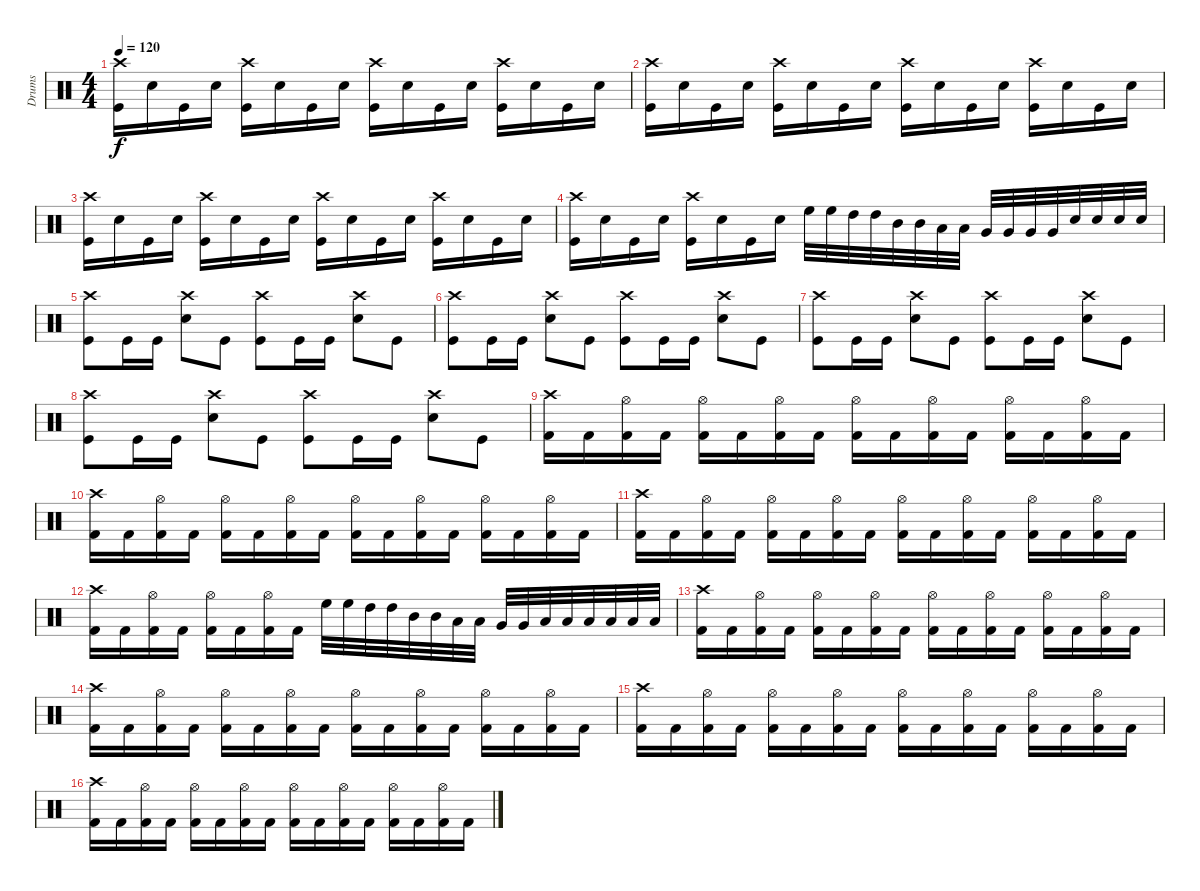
\track ("Drums" "Drums") {instrument percussion}
\staff {score}
\articulation defaults
\ts (4 4)
\tempo 120
\clef neutral
\ks c
("Crash high (hit)" "Kick (hit)").16{dy f} "Snare (hit) 2".16 "Kick (hit)".16 "Snare (hit) 2".16 ("Crash high (hit)" "Kick (hit)").16 "Snare (hit) 2".16 "Kick (hit)".16 "Snare (hit) 2".16 ("Crash high (hit)" "Kick (hit)").16 "Snare (hit) 2".16 "Kick (hit)".16 "Snare (hit) 2".16 ("Crash high (hit)" "Kick (hit)").16 "Snare (hit) 2".16 "Kick (hit)".16 "Snare (hit) 2".16 |
("Crash high (hit)" "Kick (hit)").16 "Snare (hit) 2".16 "Kick (hit)".16 "Snare (hit) 2".16 ("Crash high (hit)" "Kick (hit)").16 "Snare (hit) 2".16 "Kick (hit)".16 "Snare (hit) 2".16 ("Crash high (hit)" "Kick (hit)").16 "Snare (hit) 2".16 "Kick (hit)".16 "Snare (hit) 2".16 ("Crash high (hit)" "Kick (hit)").16 "Snare (hit) 2".16 "Kick (hit)".16 "Snare (hit) 2".16 |
("Crash high (hit)" "Kick (hit)").16 "Snare (hit) 2".16 "Kick (hit)".16 "Snare (hit) 2".16 ("Crash high (hit)" "Kick (hit)").16 "Snare (hit) 2".16 "Kick (hit)".16 "Snare (hit) 2".16 ("Crash high (hit)" "Kick (hit)").16 "Snare (hit) 2".16 "Kick (hit)".16 "Snare (hit) 2".16 ("Crash high (hit)" "Kick (hit)").16 "Snare (hit) 2".16 "Kick (hit)".16 "Snare (hit) 2".16 |
("Crash high (hit)" "Kick (hit)").16 "Snare (hit) 2".16 "Kick (hit)".16 "Snare (hit) 2".16 ("Crash high (hit)" "Kick (hit)").16 "Snare (hit) 2".16 "Kick (hit)".16 "Snare (hit) 2".16 "High Floor Tom (hit)".32 "High Floor Tom (hit)".32 "High Tom (hit)".32 "High Tom (hit)".32 "Mid Tom (hit)".32 "Mid Tom (hit)".32 "Low Tom (hit)".32 "Low Tom (hit)".32 "Very Low Tom (hit)".32 "Very Low Tom (hit)".32 "Very Low Tom (hit)".32 "Very Low Tom (hit)".32 "Snare (hit) 2".32 "Snare (hit) 2".32 "Snare (hit) 2".32 "Snare (hit) 2".32 |
("Crash high (hit)" "Kick (hit)").8 "Kick (hit)".16 "Kick (hit)".16 ("Crash high (hit)" "Snare (hit) 2").8 "Kick (hit)".8 ("Crash high (hit)" "Kick (hit)").8 "Kick (hit)".16 "Kick (hit)".16 ("Crash high (hit)" "Snare (hit) 2").8 "Kick (hit)".8 |
("Crash high (hit)" "Kick (hit)").8 "Kick (hit)".16 "Kick (hit)".16 ("Crash high (hit)" "Snare (hit) 2").8 "Kick (hit)".8 ("Crash high (hit)" "Kick (hit)").8 "Kick (hit)".16 "Kick (hit)".16 ("Crash high (hit)" "Snare (hit) 2").8 "Kick (hit)".8 |
("Crash high (hit)" "Kick (hit)").8 "Kick (hit)".16 "Kick (hit)".16 ("Crash high (hit)" "Snare (hit) 2").8 "Kick (hit)".8 ("Crash high (hit)" "Kick (hit)").8 "Kick (hit)".16 "Kick (hit)".16 ("Crash high (hit)" "Snare (hit) 2").8 "Kick (hit)".8 |
("Crash high (hit)" "Kick (hit)").8 "Kick (hit)".16 "Kick (hit)".16 ("Crash high (hit)" "Snare (hit) 2").8 "Kick (hit)".8 ("Crash high (hit)" "Kick (hit)").8 "Kick (hit)".16 "Kick (hit)".16 ("Crash high (hit)" "Snare (hit) 2").8 "Kick (hit)".8 |
("Crash high (hit)" "Kick (hit) 2").16 "Kick (hit) 2".16 ("Hi-Hat (open)" "Kick (hit) 2").16 "Kick (hit) 2".16 ("Hi-Hat (open)" "Kick (hit) 2").16 "Kick (hit) 2".16 ("Hi-Hat (open)" "Kick (hit) 2").16 "Kick (hit) 2".16 ("Hi-Hat (open)" "Kick (hit) 2").16 "Kick (hit) 2".16 ("Hi-Hat (open)" "Kick (hit) 2").16 "Kick (hit) 2".16 ("Hi-Hat (open)" "Kick (hit) 2").16 "Kick (hit) 2".16 ("Hi-Hat (open)" "Kick (hit) 2").16 "Kick (hit) 2".16 |
("Crash high (hit)" "Kick (hit) 2").16 "Kick (hit) 2".16 ("Hi-Hat (open)" "Kick (hit) 2").16 "Kick (hit) 2".16 ("Hi-Hat (open)" "Kick (hit) 2").16 "Kick (hit) 2".16 ("Hi-Hat (open)" "Kick (hit) 2").16 "Kick (hit) 2".16 ("Hi-Hat (open)" "Kick (hit) 2").16 "Kick (hit) 2".16 ("Hi-Hat (open)" "Kick (hit) 2").16 "Kick (hit) 2".16 ("Hi-Hat (open)" "Kick (hit) 2").16 "Kick (hit) 2".16 ("Hi-Hat (open)" "Kick (hit) 2").16 "Kick (hit) 2".16 |
("Crash high (hit)" "Kick (hit) 2").16 "Kick (hit) 2".16 ("Hi-Hat (open)" "Kick (hit) 2").16 "Kick (hit) 2".16 ("Hi-Hat (open)" "Kick (hit) 2").16 "Kick (hit) 2".16 ("Hi-Hat (open)" "Kick (hit) 2").16 "Kick (hit) 2".16 ("Hi-Hat (open)" "Kick (hit) 2").16 "Kick (hit) 2".16 ("Hi-Hat (open)" "Kick (hit) 2").16 "Kick (hit) 2".16 ("Hi-Hat (open)" "Kick (hit) 2").16 "Kick (hit) 2".16 ("Hi-Hat (open)" "Kick (hit) 2").16 "Kick (hit) 2".16 |
("Crash high (hit)" "Kick (hit) 2").16 "Kick (hit) 2".16 ("Hi-Hat (open)" "Kick (hit) 2").16 "Kick (hit) 2".16 ("Hi-Hat (open)" "Kick (hit) 2").16 "Kick (hit) 2".16 ("Hi-Hat (open)" "Kick (hit) 2").16 "Kick (hit) 2".16 "High Floor Tom (hit)".32 "High Floor Tom (hit)".32 "High Tom (hit)".32 "High Tom (hit)".32 "Mid Tom (hit)".32 "Mid Tom (hit)".32 "Low Tom (hit)".32 "Low Tom (hit)".32 "Very Low Tom (hit)".32 "Very Low Tom (hit)".32 "Low Floor Tom (hit)".32 "Low Floor Tom (hit)".32 "Low Floor Tom (hit)".32 "Low Floor Tom (hit)".32 "Low Floor Tom (hit)".32 "Low Floor Tom (hit)".32 |
("Crash high (hit)" "Kick (hit) 2").16 "Kick (hit) 2".16 ("Hi-Hat (open)" "Kick (hit) 2").16 "Kick (hit) 2".16 ("Hi-Hat (open)" "Kick (hit) 2").16 "Kick (hit) 2".16 ("Hi-Hat (open)" "Kick (hit) 2").16 "Kick (hit) 2".16 ("Hi-Hat (open)" "Kick (hit) 2").16 "Kick (hit) 2".16 ("Hi-Hat (open)" "Kick (hit) 2").16 "Kick (hit) 2".16 ("Hi-Hat (open)" "Kick (hit) 2").16 "Kick (hit) 2".16 ("Hi-Hat (open)" "Kick (hit) 2").16 "Kick (hit) 2".16 |
("Crash high (hit)" "Kick (hit) 2").16 "Kick (hit) 2".16 ("Hi-Hat (open)" "Kick (hit) 2").16 "Kick (hit) 2".16 ("Hi-Hat (open)" "Kick (hit) 2").16 "Kick (hit) 2".16 ("Hi-Hat (open)" "Kick (hit) 2").16 "Kick (hit) 2".16 ("Hi-Hat (open)" "Kick (hit) 2").16 "Kick (hit) 2".16 ("Hi-Hat (open)" "Kick (hit) 2").16 "Kick (hit) 2".16 ("Hi-Hat (open)" "Kick (hit) 2").16 "Kick (hit) 2".16 ("Hi-Hat (open)" "Kick (hit) 2").16 "Kick (hit) 2".16 |
("Crash high (hit)" "Kick (hit) 2").16 "Kick (hit) 2".16 ("Hi-Hat (open)" "Kick (hit) 2").16 "Kick (hit) 2".16 ("Hi-Hat (open)" "Kick (hit) 2").16 "Kick (hit) 2".16 ("Hi-Hat (open)" "Kick (hit) 2").16 "Kick (hit) 2".16 ("Hi-Hat (open)" "Kick (hit) 2").16 "Kick (hit) 2".16 ("Hi-Hat (open)" "Kick (hit) 2").16 "Kick (hit) 2".16 ("Hi-Hat (open)" "Kick (hit) 2").16 "Kick (hit) 2".16 ("Hi-Hat (open)" "Kick (hit) 2").16 "Kick (hit) 2".16 |
("Crash high (hit)" "Kick (hit) 2").16 "Kick (hit) 2".16 ("Hi-Hat (open)" "Kick (hit) 2").16 "Kick (hit) 2".16 ("Hi-Hat (open)" "Kick (hit) 2").16 "Kick (hit) 2".16 ("Hi-Hat (open)" "Kick (hit) 2").16 "Kick (hit) 2".16 ("Hi-Hat (open)" "Kick (hit) 2").16 "Kick (hit) 2".16 ("Hi-Hat (open)" "Kick (hit) 2").16 "Kick (hit) 2".16 ("Hi-Hat (open)" "Kick (hit) 2").16 "Kick (hit) 2".16 ("Hi-Hat (open)" "Kick (hit) 2").16 "Kick (hit) 2".16
